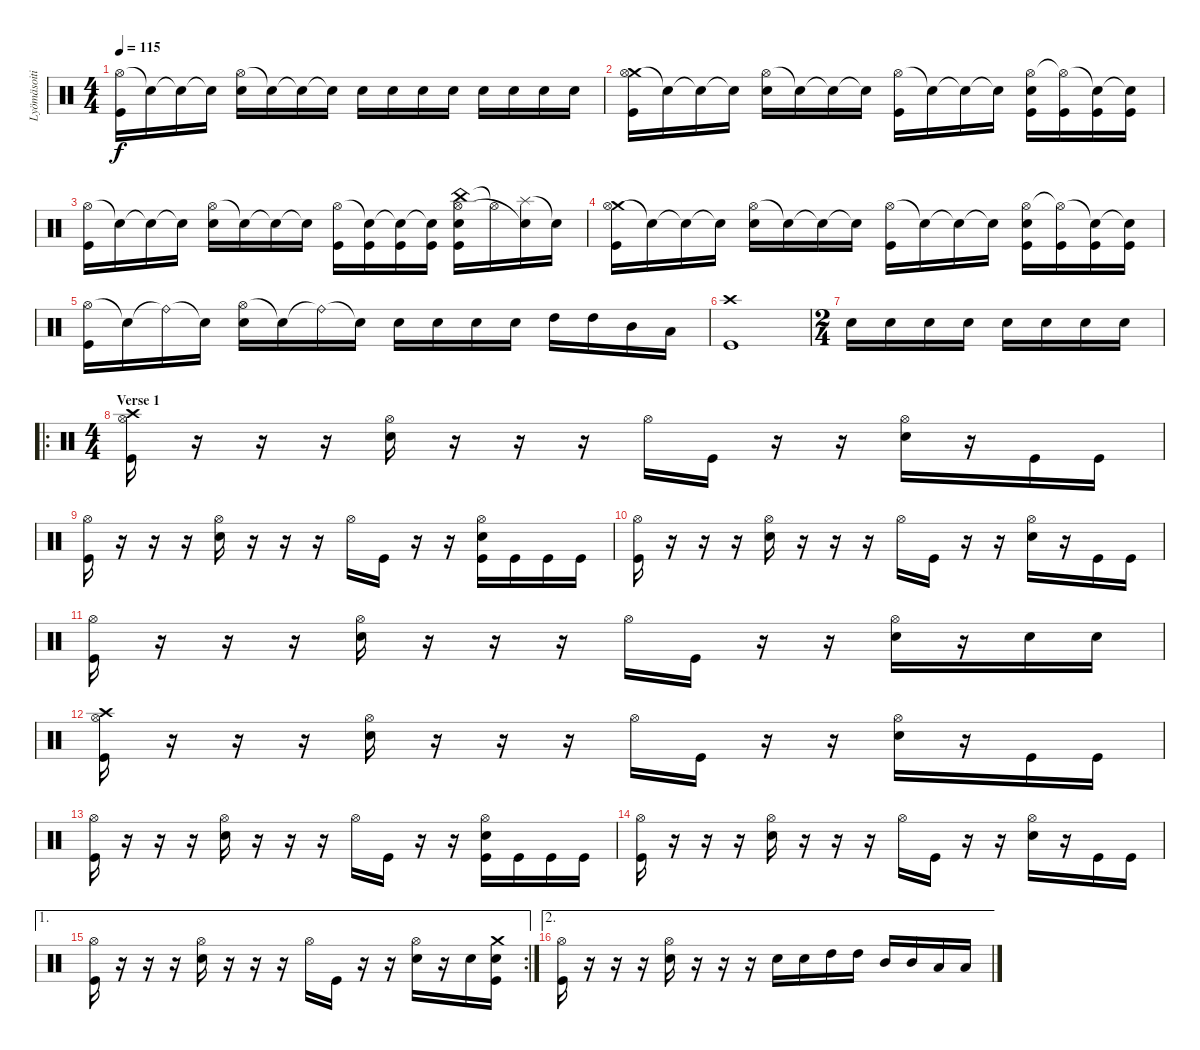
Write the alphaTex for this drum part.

\track ("Lyömäsoitin" "Lyömäsoiti") {instrument percussion}
\staff {score}
\articulation defaults
\ts (4 4)
\tempo 115
\clef neutral
\ks c
("Hi-Hat (open)" "Kick (hit)").16{dy f} "Snare (hit)"{t}.16 "Snare (hit)"{t}.16 "Snare (hit)"{t}.16 ("Hi-Hat (open)" "Snare (hit) 2").16 "Snare (hit)"{t}.16 "Snare (hit)"{t}.16 "Snare (hit)"{t}.16 "Snare (hit) 2".16 "Snare (hit) 2".16 "Snare (hit) 2".16 "Snare (hit) 2".16 "Snare (hit) 2".16 "Snare (hit) 2".16 "Snare (hit) 2".16 "Snare (hit) 2".16 |
("Crash medium (hit)" "Hi-Hat (open)" "Kick (hit)").16 "Snare (hit)"{t}.16 "Snare (hit)"{t}.16 "Snare (hit)"{t}.16 ("Hi-Hat (open)" "Snare (hit) 2").16 "Snare (hit)"{t}.16 "Snare (hit)"{t}.16 "Snare (hit)"{t}.16 ("Hi-Hat (open)" "Kick (hit)").16 "Snare (hit)"{t}.16 "Snare (hit)"{t}.16 "Snare (hit)"{t}.16 ("Hi-Hat (open)" "Snare (hit) 2" "Kick (hit)").16 ("Hi-Hat (open)"{t} "Kick (hit)").16 ("Snare (hit)"{t} "Kick (hit)").16 ("Snare (hit)"{t} "Kick (hit)").16 |
("Hi-Hat (open)" "Kick (hit)").16 "Snare (hit)"{t}.16 "Snare (hit)"{t}.16 "Snare (hit)"{t}.16 ("Hi-Hat (open)" "Snare (hit) 2").16 "Snare (hit)"{t}.16 "Snare (hit)"{t}.16 "Snare (hit)"{t}.16 ("Hi-Hat (open)" "Kick (hit)").16 ("Snare (hit)"{t} "Kick (hit)").16 ("Snare (hit)"{t} "Kick (hit)").16 ("Snare (hit)"{t} "Kick (hit)").16 ("China (hit)" "Hi-Hat (open)" "Snare (hit) 2" "Kick (hit)").16 "Hi-Hat (open)"{t}.16 ("Splash (hit)" "Snare (hit)"{t}).16 "Snare (hit)"{t}.16 |
("Crash medium (hit)" "Hi-Hat (open)" "Kick (hit)").16 "Snare (hit)"{t}.16 "Snare (hit)"{t}.16 "Snare (hit)"{t}.16 ("Hi-Hat (open)" "Snare (hit) 2").16 "Snare (hit)"{t}.16 "Snare (hit)"{t}.16 "Snare (hit)"{t}.16 ("Hi-Hat (open)" "Kick (hit)").16 "Snare (hit)"{t}.16 "Snare (hit)"{t}.16 "Snare (hit)"{t}.16 ("Hi-Hat (open)" "Snare (hit) 2" "Kick (hit)").16 ("Hi-Hat (open)"{t} "Kick (hit)").16 ("Snare (hit)"{t} "Kick (hit)").16 ("Snare (hit)"{t} "Kick (hit)").16 |
("Hi-Hat (open)" "Kick (hit)").16 "Snare (hit)"{t}.16 "Ride (bell)"{t}.16 "Snare (hit)"{t}.16 ("Hi-Hat (open)" "Snare (hit) 2").16 "Snare (hit)"{t}.16 "Ride (bell)"{t}.16 "Snare (hit)"{t}.16 "Snare (hit) 2".16 "Snare (hit) 2".16 "Snare (hit) 2".16 "Snare (hit) 2".16 "High Tom (hit)".16 "High Tom (hit)".16 "Mid Tom (hit)".16 "Low Tom (hit)".16 |
("Crash high (hit)" "Kick (hit)").1 |
\ts (2 4)
"Snare (hit) 2".16 "Snare (hit) 2".16 "Snare (hit) 2".16 "Snare (hit) 2".16 "Snare (hit) 2".16 "Snare (hit) 2".16 "Snare (hit) 2".16 "Snare (hit) 2".16 |
\ro
\ts (4 4)
\section ("" "Verse 1")
("Crash high (hit)" "Hi-Hat (open)" "Kick (hit)").16 r.16 r.16 r.16 ("Hi-Hat (open)" "Snare (hit) 2").16 r.16 r.16 r.16 "Hi-Hat (open)".16 "Kick (hit)".16 r.16 r.16 ("Hi-Hat (open)" "Snare (hit) 2").16 r.16 "Kick (hit)".16 "Kick (hit)".16 |
("Hi-Hat (open)" "Kick (hit)").16 r.16 r.16 r.16 ("Hi-Hat (open)" "Snare (hit) 2").16 r.16 r.16 r.16 "Hi-Hat (open)".16 "Kick (hit)".16 r.16 r.16 ("Hi-Hat (open)" "Snare (hit) 2" "Kick (hit)").16 "Kick (hit)".16 "Kick (hit)".16 "Kick (hit)".16 |
("Hi-Hat (open)" "Kick (hit)").16 r.16 r.16 r.16 ("Hi-Hat (open)" "Snare (hit) 2").16 r.16 r.16 r.16 "Hi-Hat (open)".16 "Kick (hit)".16 r.16 r.16 ("Hi-Hat (open)" "Snare (hit) 2").16 r.16 "Kick (hit)".16 "Kick (hit)".16 |
("Hi-Hat (open)" "Kick (hit)").16 r.16 r.16 r.16 ("Hi-Hat (open)" "Snare (hit) 2").16 r.16 r.16 r.16 "Hi-Hat (open)".16 "Kick (hit)".16 r.16 r.16 ("Hi-Hat (open)" "Snare (hit) 2").16 r.16 "Snare (hit) 2".16 "Snare (hit) 2".16 |
("Crash high (hit)" "Hi-Hat (open)" "Kick (hit)").16 r.16 r.16 r.16 ("Hi-Hat (open)" "Snare (hit) 2").16 r.16 r.16 r.16 "Hi-Hat (open)".16 "Kick (hit)".16 r.16 r.16 ("Hi-Hat (open)" "Snare (hit) 2").16 r.16 "Kick (hit)".16 "Kick (hit)".16 |
("Hi-Hat (open)" "Kick (hit)").16 r.16 r.16 r.16 ("Hi-Hat (open)" "Snare (hit) 2").16 r.16 r.16 r.16 "Hi-Hat (open)".16 "Kick (hit)".16 r.16 r.16 ("Hi-Hat (open)" "Snare (hit) 2" "Kick (hit)").16 "Kick (hit)".16 "Kick (hit)".16 "Kick (hit)".16 |
("Hi-Hat (open)" "Kick (hit)").16 r.16 r.16 r.16 ("Hi-Hat (open)" "Snare (hit) 2").16 r.16 r.16 r.16 "Hi-Hat (open)".16 "Kick (hit)".16 r.16 r.16 ("Hi-Hat (open)" "Snare (hit) 2").16 r.16 "Kick (hit)".16 "Kick (hit)".16 |
\ae 1
\rc 2
("Hi-Hat (open)" "Kick (hit)").16 r.16 r.16 r.16 ("Hi-Hat (open)" "Snare (hit) 2").16 r.16 r.16 r.16 "Hi-Hat (open)".16 "Kick (hit)".16 r.16 r.16 ("Hi-Hat (open)" "Snare (hit) 2").16 r.16 "Snare (hit) 2".16 ("Crash medium (hit)" "Snare (hit) 2" "Kick (hit)").16 |
\ae 2
("Hi-Hat (open)" "Kick (hit)").16 r.16 r.16 r.16 ("Hi-Hat (open)" "Snare (hit) 2").16 r.16 r.16 r.16 "Snare (hit) 2".16 "Snare (hit) 2".16 "High Tom (hit)".16 "High Tom (hit)".16 "Mid Tom (hit)".16 "Mid Tom (hit)".16 "Low Tom (hit)".16 "Low Tom (hit)".16
